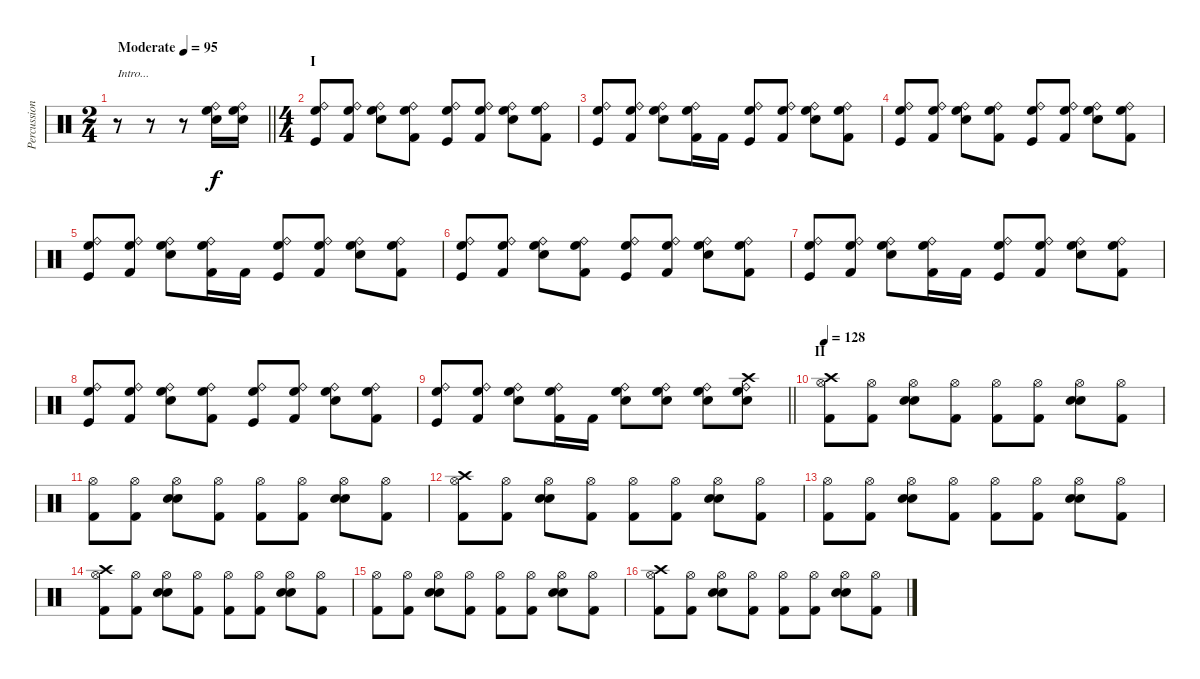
\track ("Percussion" "Percussion") {instrument percussion}
\staff {score}
\articulation defaults
\ts (2 4)
\tempo (95 "Moderate")
\clef neutral
\barLineRight lightlight
\ks c
r.8{txt "Intro..." dy f} r.8 r.8 ("Electric Snare (hit)" "High Floor Tom (hit)" "Ride (bell)").16 ("Electric Snare (hit)" "High Floor Tom (hit)" "Ride (bell)").16 |
\ts (4 4)
\section ("" "I")
("High Floor Tom (hit)" "Kick (hit)" "Ride (bell)").8 ("High Floor Tom (hit)" "Kick (hit) 2" "Ride (bell)").8 ("Electric Snare (hit)" "High Floor Tom (hit)" "Ride (bell)").8 ("High Floor Tom (hit)" "Kick (hit) 2" "Ride (bell)").8 ("High Floor Tom (hit)" "Kick (hit)" "Ride (bell)").8 ("High Floor Tom (hit)" "Kick (hit) 2" "Ride (bell)").8 ("Electric Snare (hit)" "High Floor Tom (hit)" "Ride (bell)").8 ("High Floor Tom (hit)" "Kick (hit) 2" "Ride (bell)").8 |
("High Floor Tom (hit)" "Kick (hit)" "Ride (bell)").8 ("High Floor Tom (hit)" "Kick (hit) 2" "Ride (bell)").8 ("Electric Snare (hit)" "High Floor Tom (hit)" "Ride (bell)").8 ("High Floor Tom (hit)" "Kick (hit) 2" "Ride (bell)").16 "Kick (hit) 2".16 ("High Floor Tom (hit)" "Kick (hit)" "Ride (bell)").8 ("High Floor Tom (hit)" "Kick (hit) 2" "Ride (bell)").8 ("Electric Snare (hit)" "High Floor Tom (hit)" "Ride (bell)").8 ("High Floor Tom (hit)" "Kick (hit) 2" "Ride (bell)").8 |
("High Floor Tom (hit)" "Kick (hit)" "Ride (bell)").8 ("High Floor Tom (hit)" "Kick (hit) 2" "Ride (bell)").8 ("Electric Snare (hit)" "High Floor Tom (hit)" "Ride (bell)").8 ("High Floor Tom (hit)" "Kick (hit) 2" "Ride (bell)").8 ("High Floor Tom (hit)" "Kick (hit)" "Ride (bell)").8 ("High Floor Tom (hit)" "Kick (hit) 2" "Ride (bell)").8 ("Electric Snare (hit)" "High Floor Tom (hit)" "Ride (bell)").8 ("High Floor Tom (hit)" "Kick (hit) 2" "Ride (bell)").8 |
("High Floor Tom (hit)" "Kick (hit)" "Ride (bell)").8 ("High Floor Tom (hit)" "Kick (hit) 2" "Ride (bell)").8 ("Electric Snare (hit)" "High Floor Tom (hit)" "Ride (bell)").8 ("High Floor Tom (hit)" "Kick (hit) 2" "Ride (bell)").16 "Kick (hit) 2".16 ("High Floor Tom (hit)" "Kick (hit)" "Ride (bell)").8 ("High Floor Tom (hit)" "Kick (hit) 2" "Ride (bell)").8 ("Electric Snare (hit)" "High Floor Tom (hit)" "Ride (bell)").8 ("High Floor Tom (hit)" "Kick (hit) 2" "Ride (bell)").8 |
("High Floor Tom (hit)" "Kick (hit)" "Ride (bell)").8 ("High Floor Tom (hit)" "Kick (hit) 2" "Ride (bell)").8 ("Electric Snare (hit)" "High Floor Tom (hit)" "Ride (bell)").8 ("High Floor Tom (hit)" "Kick (hit) 2" "Ride (bell)").8 ("High Floor Tom (hit)" "Kick (hit)" "Ride (bell)").8 ("High Floor Tom (hit)" "Kick (hit) 2" "Ride (bell)").8 ("Electric Snare (hit)" "High Floor Tom (hit)" "Ride (bell)").8 ("High Floor Tom (hit)" "Kick (hit) 2" "Ride (bell)").8 |
("High Floor Tom (hit)" "Kick (hit)" "Ride (bell)").8 ("High Floor Tom (hit)" "Kick (hit) 2" "Ride (bell)").8 ("Electric Snare (hit)" "High Floor Tom (hit)" "Ride (bell)").8 ("High Floor Tom (hit)" "Kick (hit) 2" "Ride (bell)").16 "Kick (hit) 2".16 ("High Floor Tom (hit)" "Kick (hit)" "Ride (bell)").8 ("High Floor Tom (hit)" "Kick (hit) 2" "Ride (bell)").8 ("Electric Snare (hit)" "High Floor Tom (hit)" "Ride (bell)").8 ("High Floor Tom (hit)" "Kick (hit) 2" "Ride (bell)").8 |
("High Floor Tom (hit)" "Kick (hit)" "Ride (bell)").8 ("High Floor Tom (hit)" "Kick (hit) 2" "Ride (bell)").8 ("Electric Snare (hit)" "High Floor Tom (hit)" "Ride (bell)").8 ("High Floor Tom (hit)" "Kick (hit) 2" "Ride (bell)").8 ("High Floor Tom (hit)" "Kick (hit)" "Ride (bell)").8 ("High Floor Tom (hit)" "Kick (hit) 2" "Ride (bell)").8 ("Electric Snare (hit)" "High Floor Tom (hit)" "Ride (bell)").8 ("High Floor Tom (hit)" "Kick (hit) 2" "Ride (bell)").8 |
\barLineRight lightlight
("High Floor Tom (hit)" "Kick (hit)" "Ride (bell)").8 ("High Floor Tom (hit)" "Kick (hit) 2" "Ride (bell)").8 ("Electric Snare (hit)" "High Floor Tom (hit)" "Ride (bell)").8 ("High Floor Tom (hit)" "Kick (hit) 2" "Ride (bell)").16 "Kick (hit) 2".16 ("Electric Snare (hit)" "High Floor Tom (hit)" "Ride (bell)").8 ("Electric Snare (hit)" "High Floor Tom (hit)" "Ride (bell)").8 ("Electric Snare (hit)" "High Floor Tom (hit)" "Ride (bell)").8 ("Crash high (hit)" "Electric Snare (hit)" "High Floor Tom (hit)" "Ride (bell)").8 |
\section ("" "II")
\tempo 128
("Crash high (hit)" "Kick (hit) 2" "Hi-Hat (open)").8 ("Kick (hit) 2" "Hi-Hat (open)").8 ("Electric Snare (hit)" "Snare (hit) 2" "Hi-Hat (open)").8 ("Kick (hit) 2" "Hi-Hat (open)").8 ("Kick (hit) 2" "Hi-Hat (open)").8 ("Kick (hit) 2" "Hi-Hat (open)").8 ("Electric Snare (hit)" "Snare (hit) 2" "Hi-Hat (open)").8 ("Kick (hit) 2" "Hi-Hat (open)").8 |
("Kick (hit) 2" "Hi-Hat (open)").8 ("Kick (hit) 2" "Hi-Hat (open)").8 ("Electric Snare (hit)" "Snare (hit) 2" "Hi-Hat (open)").8 ("Kick (hit) 2" "Hi-Hat (open)").8 ("Kick (hit) 2" "Hi-Hat (open)").8 ("Kick (hit) 2" "Hi-Hat (open)").8 ("Electric Snare (hit)" "Snare (hit) 2" "Hi-Hat (open)").8 ("Kick (hit) 2" "Hi-Hat (open)").8 |
("Crash high (hit)" "Kick (hit) 2" "Hi-Hat (open)").8 ("Kick (hit) 2" "Hi-Hat (open)").8 ("Electric Snare (hit)" "Snare (hit) 2" "Hi-Hat (open)").8 ("Kick (hit) 2" "Hi-Hat (open)").8 ("Kick (hit) 2" "Hi-Hat (open)").8 ("Kick (hit) 2" "Hi-Hat (open)").8 ("Electric Snare (hit)" "Snare (hit) 2" "Hi-Hat (open)").8 ("Kick (hit) 2" "Hi-Hat (open)").8 |
("Kick (hit) 2" "Hi-Hat (open)").8 ("Kick (hit) 2" "Hi-Hat (open)").8 ("Electric Snare (hit)" "Snare (hit) 2" "Hi-Hat (open)").8 ("Kick (hit) 2" "Hi-Hat (open)").8 ("Kick (hit) 2" "Hi-Hat (open)").8 ("Kick (hit) 2" "Hi-Hat (open)").8 ("Electric Snare (hit)" "Snare (hit) 2" "Hi-Hat (open)").8 ("Kick (hit) 2" "Hi-Hat (open)").8 |
("Crash high (hit)" "Kick (hit) 2" "Hi-Hat (open)").8 ("Kick (hit) 2" "Hi-Hat (open)").8 ("Electric Snare (hit)" "Snare (hit) 2" "Hi-Hat (open)").8 ("Kick (hit) 2" "Hi-Hat (open)").8 ("Kick (hit) 2" "Hi-Hat (open)").8 ("Kick (hit) 2" "Hi-Hat (open)").8 ("Electric Snare (hit)" "Snare (hit) 2" "Hi-Hat (open)").8 ("Kick (hit) 2" "Hi-Hat (open)").8 |
("Kick (hit) 2" "Hi-Hat (open)").8 ("Kick (hit) 2" "Hi-Hat (open)").8 ("Electric Snare (hit)" "Snare (hit) 2" "Hi-Hat (open)").8 ("Kick (hit) 2" "Hi-Hat (open)").8 ("Kick (hit) 2" "Hi-Hat (open)").8 ("Kick (hit) 2" "Hi-Hat (open)").8 ("Electric Snare (hit)" "Snare (hit) 2" "Hi-Hat (open)").8 ("Kick (hit) 2" "Hi-Hat (open)").8 |
("Crash high (hit)" "Kick (hit) 2" "Hi-Hat (open)").8 ("Kick (hit) 2" "Hi-Hat (open)").8 ("Electric Snare (hit)" "Snare (hit) 2" "Hi-Hat (open)").8 ("Kick (hit) 2" "Hi-Hat (open)").8 ("Kick (hit) 2" "Hi-Hat (open)").8 ("Kick (hit) 2" "Hi-Hat (open)").8 ("Electric Snare (hit)" "Snare (hit) 2" "Hi-Hat (open)").8 ("Kick (hit) 2" "Hi-Hat (open)").8
